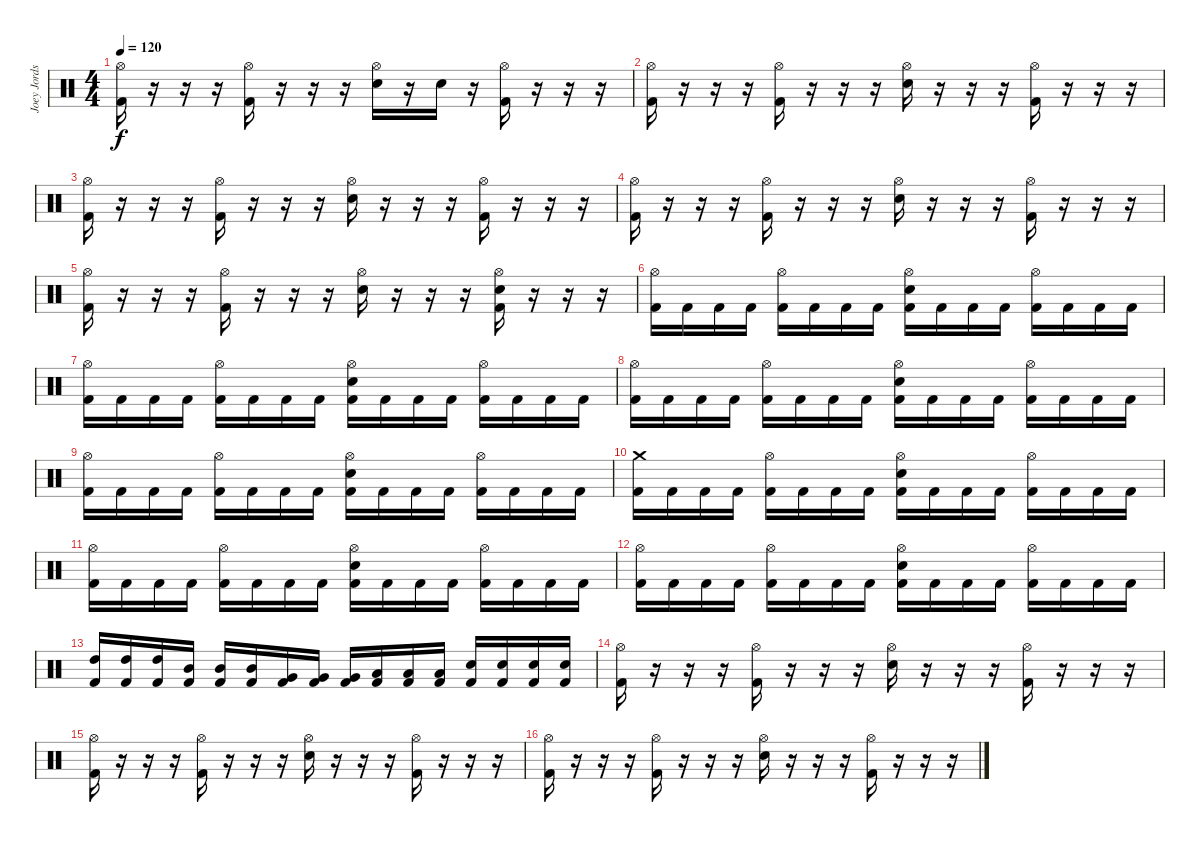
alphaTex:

\track ("Joey Jordson" "Joey Jords") {instrument percussion}
\staff {score}
\articulation defaults
\ts (4 4)
\tempo 120
\clef neutral
\ks c
("Hi-Hat (open)" "Kick (hit) 2").16{dy f} r.16 r.16 r.16 ("Hi-Hat (open)" "Kick (hit) 2").16 r.16 r.16 r.16 ("Hi-Hat (open)" "Electric Snare (hit)").16 r.16 "Electric Snare (hit)".16 r.16 ("Hi-Hat (open)" "Kick (hit) 2").16 r.16 r.16 r.16 |
("Hi-Hat (open)" "Kick (hit) 2").16 r.16 r.16 r.16 ("Hi-Hat (open)" "Kick (hit) 2").16 r.16 r.16 r.16 ("Hi-Hat (open)" "Electric Snare (hit)").16 r.16 r.16 r.16 ("Hi-Hat (open)" "Kick (hit) 2").16 r.16 r.16 r.16 |
("Hi-Hat (open)" "Kick (hit) 2").16 r.16 r.16 r.16 ("Hi-Hat (open)" "Kick (hit) 2").16 r.16 r.16 r.16 ("Hi-Hat (open)" "Electric Snare (hit)").16 r.16 r.16 r.16 ("Hi-Hat (open)" "Kick (hit) 2").16 r.16 r.16 r.16 |
("Hi-Hat (open)" "Kick (hit) 2").16 r.16 r.16 r.16 ("Hi-Hat (open)" "Kick (hit) 2").16 r.16 r.16 r.16 ("Hi-Hat (open)" "Electric Snare (hit)").16 r.16 r.16 r.16 ("Hi-Hat (open)" "Kick (hit) 2").16 r.16 r.16 r.16 |
("Hi-Hat (open)" "Kick (hit) 2").16 r.16 r.16 r.16 ("Hi-Hat (open)" "Kick (hit) 2").16 r.16 r.16 r.16 ("Hi-Hat (open)" "Electric Snare (hit)").16 r.16 r.16 r.16 ("Hi-Hat (open)" "Electric Snare (hit)" "Kick (hit) 2").16 r.16 r.16 r.16 |
("Hi-Hat (open)" "Kick (hit) 2").16 "Kick (hit) 2".16 "Kick (hit) 2".16 "Kick (hit) 2".16 ("Hi-Hat (open)" "Kick (hit) 2").16 "Kick (hit) 2".16 "Kick (hit) 2".16 "Kick (hit) 2".16 ("Hi-Hat (open)" "Electric Snare (hit)" "Kick (hit) 2").16 "Kick (hit) 2".16 "Kick (hit) 2".16 "Kick (hit) 2".16 ("Hi-Hat (open)" "Kick (hit) 2").16 "Kick (hit) 2".16 "Kick (hit) 2".16 "Kick (hit) 2".16 |
("Hi-Hat (open)" "Kick (hit) 2").16 "Kick (hit) 2".16 "Kick (hit) 2".16 "Kick (hit) 2".16 ("Hi-Hat (open)" "Kick (hit) 2").16 "Kick (hit) 2".16 "Kick (hit) 2".16 "Kick (hit) 2".16 ("Hi-Hat (open)" "Electric Snare (hit)" "Kick (hit) 2").16 "Kick (hit) 2".16 "Kick (hit) 2".16 "Kick (hit) 2".16 ("Hi-Hat (open)" "Kick (hit) 2").16 "Kick (hit) 2".16 "Kick (hit) 2".16 "Kick (hit) 2".16 |
("Hi-Hat (open)" "Kick (hit) 2").16 "Kick (hit) 2".16 "Kick (hit) 2".16 "Kick (hit) 2".16 ("Hi-Hat (open)" "Kick (hit) 2").16 "Kick (hit) 2".16 "Kick (hit) 2".16 "Kick (hit) 2".16 ("Hi-Hat (open)" "Electric Snare (hit)" "Kick (hit) 2").16 "Kick (hit) 2".16 "Kick (hit) 2".16 "Kick (hit) 2".16 ("Hi-Hat (open)" "Kick (hit) 2").16 "Kick (hit) 2".16 "Kick (hit) 2".16 "Kick (hit) 2".16 |
("Hi-Hat (open)" "Kick (hit) 2").16 "Kick (hit) 2".16 "Kick (hit) 2".16 "Kick (hit) 2".16 ("Hi-Hat (open)" "Kick (hit) 2").16 "Kick (hit) 2".16 "Kick (hit) 2".16 "Kick (hit) 2".16 ("Hi-Hat (open)" "Electric Snare (hit)" "Kick (hit) 2").16 "Kick (hit) 2".16 "Kick (hit) 2".16 "Kick (hit) 2".16 ("Hi-Hat (open)" "Kick (hit) 2").16 "Kick (hit) 2".16 "Kick (hit) 2".16 "Kick (hit) 2".16 |
("Crash medium (hit)" "Kick (hit) 2").16 "Kick (hit) 2".16 "Kick (hit) 2".16 "Kick (hit) 2".16 ("Hi-Hat (open)" "Kick (hit) 2").16 "Kick (hit) 2".16 "Kick (hit) 2".16 "Kick (hit) 2".16 ("Hi-Hat (open)" "Electric Snare (hit)" "Kick (hit) 2").16 "Kick (hit) 2".16 "Kick (hit) 2".16 "Kick (hit) 2".16 ("Hi-Hat (open)" "Kick (hit) 2").16 "Kick (hit) 2".16 "Kick (hit) 2".16 "Kick (hit) 2".16 |
("Hi-Hat (open)" "Kick (hit) 2").16 "Kick (hit) 2".16 "Kick (hit) 2".16 "Kick (hit) 2".16 ("Hi-Hat (open)" "Kick (hit) 2").16 "Kick (hit) 2".16 "Kick (hit) 2".16 "Kick (hit) 2".16 ("Hi-Hat (open)" "Electric Snare (hit)" "Kick (hit) 2").16 "Kick (hit) 2".16 "Kick (hit) 2".16 "Kick (hit) 2".16 ("Hi-Hat (open)" "Kick (hit) 2").16 "Kick (hit) 2".16 "Kick (hit) 2".16 "Kick (hit) 2".16 |
("Hi-Hat (open)" "Kick (hit) 2").16 "Kick (hit) 2".16 "Kick (hit) 2".16 "Kick (hit) 2".16 ("Hi-Hat (open)" "Kick (hit) 2").16 "Kick (hit) 2".16 "Kick (hit) 2".16 "Kick (hit) 2".16 ("Hi-Hat (open)" "Electric Snare (hit)" "Kick (hit) 2").16 "Kick (hit) 2".16 "Kick (hit) 2".16 "Kick (hit) 2".16 ("Hi-Hat (open)" "Kick (hit) 2").16 "Kick (hit) 2".16 "Kick (hit) 2".16 "Kick (hit) 2".16 |
("High Tom (hit)" "Kick (hit) 2").16 ("High Tom (hit)" "Kick (hit) 2").16 ("High Tom (hit)" "Kick (hit) 2").16 ("Mid Tom (hit)" "Kick (hit) 2").16 ("Mid Tom (hit)" "Kick (hit) 2").16 ("Mid Tom (hit)" "Kick (hit) 2").16 ("Very Low Tom (hit)" "Kick (hit) 2").16 ("Very Low Tom (hit)" "Kick (hit) 2").16 ("Very Low Tom (hit)" "Kick (hit) 2").16 ("Low Tom (hit)" "Kick (hit) 2").16 ("Low Tom (hit)" "Kick (hit) 2").16 ("Low Tom (hit)" "Kick (hit) 2").16 ("Electric Snare (hit)" "Kick (hit) 2").16 ("Electric Snare (hit)" "Kick (hit) 2").16 ("Electric Snare (hit)" "Kick (hit) 2").16 ("Electric Snare (hit)" "Kick (hit) 2").16 |
("Hi-Hat (open)" "Kick (hit) 2").16 r.16 r.16 r.16 ("Hi-Hat (open)" "Kick (hit) 2").16 r.16 r.16 r.16 ("Hi-Hat (open)" "Electric Snare (hit)").16 r.16 r.16 r.16 ("Hi-Hat (open)" "Kick (hit) 2").16 r.16 r.16 r.16 |
("Hi-Hat (open)" "Kick (hit) 2").16 r.16 r.16 r.16 ("Hi-Hat (open)" "Kick (hit) 2").16 r.16 r.16 r.16 ("Hi-Hat (open)" "Electric Snare (hit)").16 r.16 r.16 r.16 ("Hi-Hat (open)" "Kick (hit) 2").16 r.16 r.16 r.16 |
("Hi-Hat (open)" "Kick (hit) 2").16 r.16 r.16 r.16 ("Hi-Hat (open)" "Kick (hit) 2").16 r.16 r.16 r.16 ("Hi-Hat (open)" "Electric Snare (hit)").16 r.16 r.16 r.16 ("Hi-Hat (open)" "Kick (hit) 2").16 r.16 r.16 r.16
